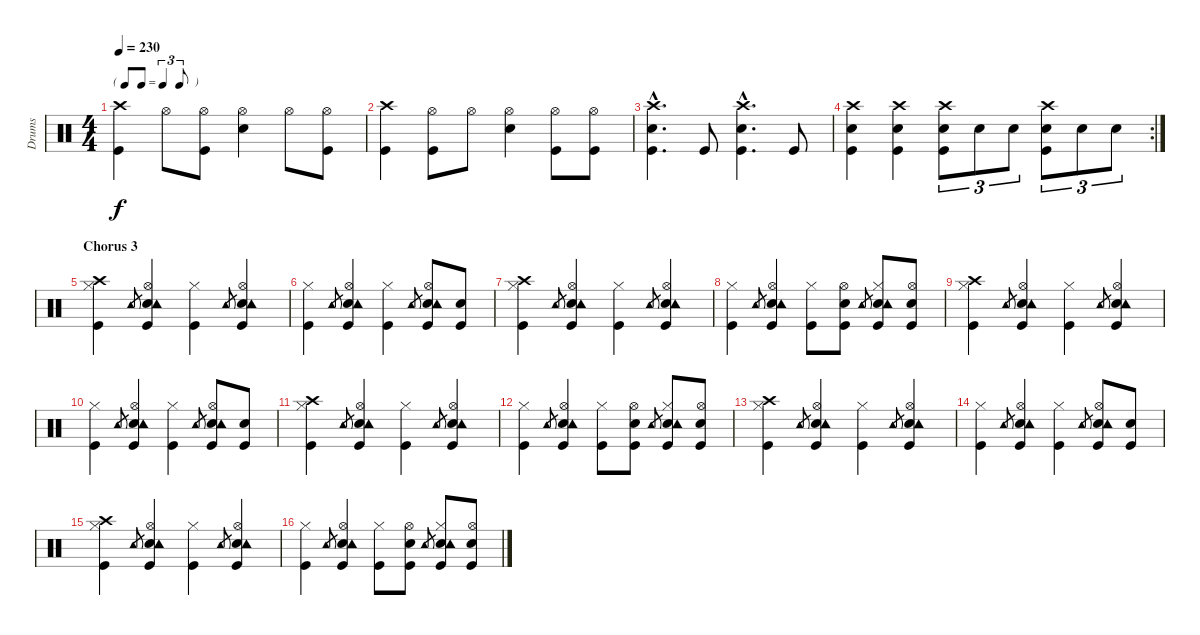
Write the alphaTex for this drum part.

\track ("Drums" "Drums") {instrument percussion}
\staff {score}
\articulation defaults
\ts (4 4)
\tf triplet8th
\tempo 230
\clef neutral
\ks c
("Crash high (hit)" "Kick (hit)").4{dy f} "Hi-Hat (open)".8 ("Hi-Hat (open)" "Kick (hit)").8 ("Hi-Hat (open)" "Electric Snare (hit)").4 "Hi-Hat (open)".8 ("Hi-Hat (open)" "Kick (hit)").8 |
("Crash high (hit)" "Kick (hit)").4 ("Hi-Hat (open)" "Kick (hit)").8 "Hi-Hat (open)".8 ("Hi-Hat (open)" "Electric Snare (hit)").4 ("Hi-Hat (open)" "Kick (hit)").8 ("Hi-Hat (open)" "Kick (hit)").8 |
("Crash high (hit)"{hac} "Electric Snare (hit)"{hac} "Kick (hit)"{hac}).4{d} "Kick (hit)".8 ("Crash high (hit)"{hac} "Electric Snare (hit)"{hac} "Kick (hit)"{hac}).4{d} "Kick (hit)".8 |
\rc 2
("Crash high (hit)" "Electric Snare (hit)" "Kick (hit)").4 ("Crash high (hit)" "Electric Snare (hit)" "Kick (hit)").4 ("Crash high (hit)" "Electric Snare (hit)" "Kick (hit)").8{tu (3 2)} "Electric Snare (hit)".8{tu (3 2)} "Electric Snare (hit)".8{tu (3 2)} ("Crash high (hit)" "Electric Snare (hit)" "Kick (hit)").8{tu (3 2)} "Electric Snare (hit)".8{tu (3 2)} "Electric Snare (hit)".8{tu (3 2)} |
\section ("" "Chorus 3")
("Crash high (hit)" "Hi-Hat (closed)" "Kick (hit)").4 "Tambourine (hit)".8{gr} ("Hi-Hat (open)" "Electric Snare (hit)" "Kick (hit)" "Tambourine (hit)").4 ("Hi-Hat (closed)" "Kick (hit)").4 "Tambourine (hit)".8{gr} ("Hi-Hat (open)" "Electric Snare (hit)" "Kick (hit)" "Tambourine (hit)").4 |
("Hi-Hat (closed)" "Kick (hit)").4 "Tambourine (hit)".8{gr} ("Hi-Hat (open)" "Electric Snare (hit)" "Kick (hit)" "Tambourine (hit)").4 ("Hi-Hat (closed)" "Kick (hit)").4 "Tambourine (hit)".8{gr} ("Hi-Hat (open)" "Electric Snare (hit)" "Kick (hit)" "Tambourine (hit)").8 ("Electric Snare (hit)" "Kick (hit)").8 |
("Crash high (hit)" "Hi-Hat (closed)" "Kick (hit)").4 "Tambourine (hit)".8{gr} ("Hi-Hat (open)" "Electric Snare (hit)" "Kick (hit)" "Tambourine (hit)").4 ("Hi-Hat (closed)" "Kick (hit)").4 "Tambourine (hit)".8{gr} ("Hi-Hat (open)" "Electric Snare (hit)" "Kick (hit)" "Tambourine (hit)").4 |
("Hi-Hat (closed)" "Kick (hit)").4 "Tambourine (hit)".8{gr} ("Hi-Hat (open)" "Electric Snare (hit)" "Kick (hit)" "Tambourine (hit)").4 ("Hi-Hat (closed)" "Kick (hit)").8 ("Hi-Hat (open)" "Electric Snare (hit)" "Kick (hit)").8 "Tambourine (hit)".8{gr} ("Hi-Hat (closed)" "Electric Snare (hit)" "Kick (hit)" "Tambourine (hit)").8 ("Hi-Hat (open)" "Electric Snare (hit)" "Kick (hit)").8 |
("Crash high (hit)" "Hi-Hat (closed)" "Kick (hit)").4 "Tambourine (hit)".8{gr} ("Hi-Hat (open)" "Electric Snare (hit)" "Kick (hit)" "Tambourine (hit)").4 ("Hi-Hat (closed)" "Kick (hit)").4 "Tambourine (hit)".8{gr} ("Hi-Hat (open)" "Electric Snare (hit)" "Kick (hit)" "Tambourine (hit)").4 |
("Hi-Hat (closed)" "Kick (hit)").4 "Tambourine (hit)".8{gr} ("Hi-Hat (open)" "Electric Snare (hit)" "Kick (hit)" "Tambourine (hit)").4 ("Hi-Hat (closed)" "Kick (hit)").4 "Tambourine (hit)".8{gr} ("Hi-Hat (open)" "Electric Snare (hit)" "Kick (hit)" "Tambourine (hit)").8 ("Electric Snare (hit)" "Kick (hit)").8 |
("Crash high (hit)" "Hi-Hat (closed)" "Kick (hit)").4 "Tambourine (hit)".8{gr} ("Hi-Hat (open)" "Electric Snare (hit)" "Kick (hit)" "Tambourine (hit)").4 ("Hi-Hat (closed)" "Kick (hit)").4 "Tambourine (hit)".8{gr} ("Hi-Hat (open)" "Electric Snare (hit)" "Kick (hit)" "Tambourine (hit)").4 |
("Hi-Hat (closed)" "Kick (hit)").4 "Tambourine (hit)".8{gr} ("Hi-Hat (open)" "Electric Snare (hit)" "Kick (hit)" "Tambourine (hit)").4 ("Hi-Hat (closed)" "Kick (hit)").8 ("Hi-Hat (open)" "Electric Snare (hit)" "Kick (hit)").8 "Tambourine (hit)".8{gr} ("Hi-Hat (closed)" "Electric Snare (hit)" "Kick (hit)" "Tambourine (hit)").8 ("Hi-Hat (open)" "Electric Snare (hit)" "Kick (hit)").8 |
("Crash high (hit)" "Hi-Hat (closed)" "Kick (hit)").4 "Tambourine (hit)".8{gr} ("Hi-Hat (open)" "Electric Snare (hit)" "Kick (hit)" "Tambourine (hit)").4 ("Hi-Hat (closed)" "Kick (hit)").4 "Tambourine (hit)".8{gr} ("Hi-Hat (open)" "Electric Snare (hit)" "Kick (hit)" "Tambourine (hit)").4 |
("Hi-Hat (closed)" "Kick (hit)").4 "Tambourine (hit)".8{gr} ("Hi-Hat (open)" "Electric Snare (hit)" "Kick (hit)" "Tambourine (hit)").4 ("Hi-Hat (closed)" "Kick (hit)").4 "Tambourine (hit)".8{gr} ("Hi-Hat (open)" "Electric Snare (hit)" "Kick (hit)" "Tambourine (hit)").8 ("Electric Snare (hit)" "Kick (hit)").8 |
("Crash high (hit)" "Hi-Hat (closed)" "Kick (hit)").4 "Tambourine (hit)".8{gr} ("Hi-Hat (open)" "Electric Snare (hit)" "Kick (hit)" "Tambourine (hit)").4 ("Hi-Hat (closed)" "Kick (hit)").4 "Tambourine (hit)".8{gr} ("Hi-Hat (open)" "Electric Snare (hit)" "Kick (hit)" "Tambourine (hit)").4 |
("Hi-Hat (closed)" "Kick (hit)").4 "Tambourine (hit)".8{gr} ("Hi-Hat (open)" "Electric Snare (hit)" "Kick (hit)" "Tambourine (hit)").4 ("Hi-Hat (closed)" "Kick (hit)").8 ("Hi-Hat (open)" "Electric Snare (hit)" "Kick (hit)").8 "Tambourine (hit)".8{gr} ("Hi-Hat (closed)" "Electric Snare (hit)" "Kick (hit)" "Tambourine (hit)").8 ("Hi-Hat (open)" "Electric Snare (hit)" "Kick (hit)").8
